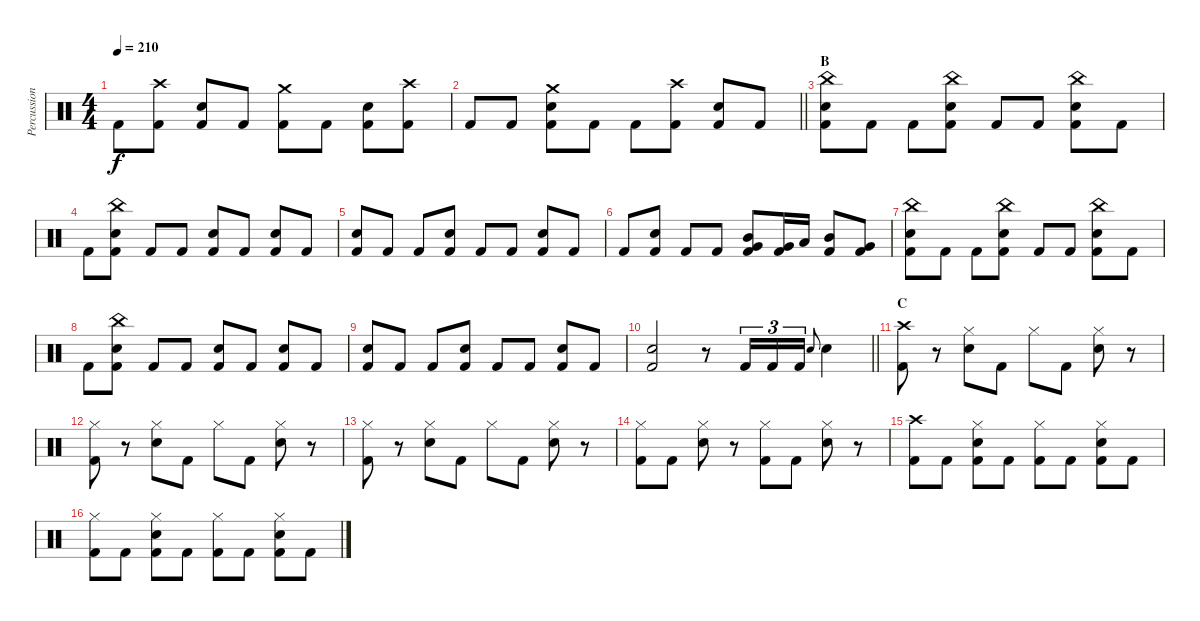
\track ("Percussion" "Percussion") {instrument percussion}
\staff {score}
\articulation defaults
\ts (4 4)
\tempo 210
\clef neutral
\ks c "Kick (hit) 2".8{dy f}
("Crash high (hit)" "Kick (hit) 2").8 ("Electric Snare (hit)" "Kick (hit) 2").8 "Kick (hit) 2".8 ("Crash medium (hit)" "Kick (hit) 2").8 "Kick (hit) 2".8 ("Electric Snare (hit)" "Kick (hit) 2").8 ("Crash high (hit)" "Kick (hit) 2").8 |
\barLineRight lightlight "Kick (hit) 2".8 "Kick (hit) 2".8
("Crash medium (hit)" "Electric Snare (hit)" "Kick (hit) 2").8 "Kick (hit) 2".8 "Kick (hit) 2".8 ("Crash high (hit)" "Kick (hit) 2").8 ("Electric Snare (hit)" "Kick (hit) 2").8 "Kick (hit) 2".8 |
\section ("" "B")
("China (hit)" "Electric Snare (hit)" "Kick (hit) 2").8 "Kick (hit) 2".8 "Kick (hit) 2".8 ("China (hit)" "Electric Snare (hit)" "Kick (hit) 2").8 "Kick (hit) 2".8 "Kick (hit) 2".8 ("China (hit)" "Electric Snare (hit)" "Kick (hit) 2").8 "Kick (hit) 2".8 |
"Kick (hit) 2".8 ("China (hit)" "Electric Snare (hit)" "Kick (hit) 2").8 "Kick (hit) 2".8 "Kick (hit) 2".8 ("Electric Snare (hit)" "Kick (hit) 2").8 "Kick (hit) 2".8 ("Electric Snare (hit)" "Kick (hit) 2").8 "Kick (hit) 2".8 |
("Electric Snare (hit)" "Kick (hit) 2").8 "Kick (hit) 2".8 "Kick (hit) 2".8 ("Electric Snare (hit)" "Kick (hit) 2").8 "Kick (hit) 2".8 "Kick (hit) 2".8 ("Electric Snare (hit)" "Kick (hit) 2").8 "Kick (hit) 2".8 |
"Kick (hit) 2".8 ("Electric Snare (hit)" "Kick (hit) 2").8 "Kick (hit) 2".8 "Kick (hit) 2".8 ("Mid Tom (hit)" "Very Low Tom (hit)" "Kick (hit) 2").8 ("Very Low Tom (hit)" "Kick (hit) 2").16 "Low Tom (hit)".16 ("Mid Tom (hit)" "Kick (hit) 2").8 ("Very Low Tom (hit)" "Kick (hit) 2").8 |
("China (hit)" "Electric Snare (hit)" "Kick (hit) 2").8 "Kick (hit) 2".8 "Kick (hit) 2".8 ("China (hit)" "Electric Snare (hit)" "Kick (hit) 2").8 "Kick (hit) 2".8 "Kick (hit) 2".8 ("China (hit)" "Electric Snare (hit)" "Kick (hit) 2").8 "Kick (hit) 2".8 |
"Kick (hit) 2".8 ("China (hit)" "Electric Snare (hit)" "Kick (hit) 2").8 "Kick (hit) 2".8 "Kick (hit) 2".8 ("Electric Snare (hit)" "Kick (hit) 2").8 "Kick (hit) 2".8 ("Electric Snare (hit)" "Kick (hit) 2").8 "Kick (hit) 2".8 |
("Electric Snare (hit)" "Kick (hit) 2").8 "Kick (hit) 2".8 "Kick (hit) 2".8 ("Electric Snare (hit)" "Kick (hit) 2").8 "Kick (hit) 2".8 "Kick (hit) 2".8 ("Electric Snare (hit)" "Kick (hit) 2").8 "Kick (hit) 2".8 |
\barLineRight lightlight
("Electric Snare (hit)" "Kick (hit) 2").2 r.8 "Kick (hit) 2".16{tu (3 2)} "Kick (hit) 2".16{tu (3 2)} "Kick (hit) 2".16{tu (3 2)} "Electric Snare (hit)".8{gr onbeat} "Electric Snare (hit)".4 |
\section ("" "C")
("Crash high (hit)" "Kick (hit) 2").8 r.8 ("Hi-Hat (closed)" "Electric Snare (hit)").8 "Kick (hit) 2".8 "Hi-Hat (closed)".8 "Kick (hit) 2".8 ("Hi-Hat (closed)" "Electric Snare (hit)").8 r.8 |
("Hi-Hat (closed)" "Kick (hit) 2").8 r.8 ("Hi-Hat (closed)" "Electric Snare (hit)").8 "Kick (hit) 2".8 "Hi-Hat (closed)".8 "Kick (hit) 2".8 ("Hi-Hat (closed)" "Electric Snare (hit)").8 r.8 |
("Hi-Hat (closed)" "Kick (hit) 2").8 r.8 ("Hi-Hat (closed)" "Electric Snare (hit)").8 "Kick (hit) 2".8 "Hi-Hat (closed)".8 "Kick (hit) 2".8 ("Hi-Hat (closed)" "Electric Snare (hit)").8 r.8 |
("Hi-Hat (closed)" "Kick (hit) 2").8 "Kick (hit) 2".8 ("Hi-Hat (closed)" "Electric Snare (hit)").8 r.8 ("Hi-Hat (closed)" "Kick (hit) 2").8 "Kick (hit) 2".8 ("Hi-Hat (closed)" "Electric Snare (hit)").8 r.8 |
("Crash high (hit)" "Kick (hit) 2").8 "Kick (hit) 2".8 ("Hi-Hat (closed)" "Electric Snare (hit)" "Kick (hit) 2").8 "Kick (hit) 2".8 ("Hi-Hat (closed)" "Kick (hit) 2").8 "Kick (hit) 2".8 ("Hi-Hat (closed)" "Electric Snare (hit)" "Kick (hit) 2").8 "Kick (hit) 2".8 |
("Hi-Hat (closed)" "Kick (hit) 2").8 "Kick (hit) 2".8 ("Hi-Hat (closed)" "Electric Snare (hit)" "Kick (hit) 2").8 "Kick (hit) 2".8 ("Hi-Hat (closed)" "Kick (hit) 2").8 "Kick (hit) 2".8 ("Hi-Hat (closed)" "Electric Snare (hit)" "Kick (hit) 2").8 "Kick (hit) 2".8
